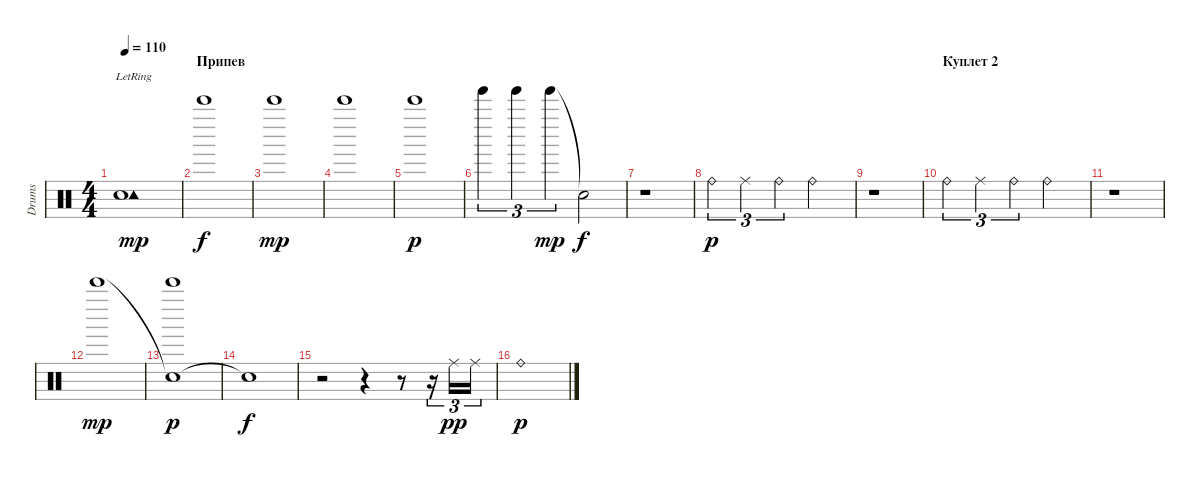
\track ("Drums" "Drums") {instrument percussion}
\staff {score}
\articulation defaults
\ts (4 4)
\tempo 110
\clef neutral
\ks c
("Tambourine (hit)"{lr} "Snare (hit)"{t}).1{dy mp} |
\section ("" "Припев")
"Bell Tree (hit)".1{dy f} |
"Bell Tree (hit)".1{dy mp} |
"Bell Tree (hit)".1 |
"Bell Tree (hit)".1{dy p} |
"Tinkle Bell (hit)".4{tu (3 2)} "Tinkle Bell (hit)".4{tu (3 2)} "Tinkle Bell (hit)".4{tu (3 2) dy mp} "Snare (hit)"{t}.2{dy f} |
r.1 |
"Ride (bell)".4{tu (3 2) dy p} "Ride (middle)".4{tu (3 2)} "Ride (bell)".4{tu (3 2)} "Ride (bell)".2 |
r.1 |
\section ("" "Куплет 2")
"Ride (bell)".4{tu (3 2)} "Ride (middle)".4{tu (3 2)} "Ride (bell)".4{tu (3 2)} "Ride (bell)".2 |
r.1 |
"Bell Tree (hit)".1{dy mp} |
("Snare (hit)"{t} "Bell Tree (hit)").1{dy p} |
"Snare (hit)"{t}.1{dy f} |
r.2 r.4 r.8 r.16{tu (3 2)} "Ride (middle)".16{tu (3 2) dy pp} "Ride (middle)".16{tu (3 2)} |
"Ride (bell)".1{dy p}
